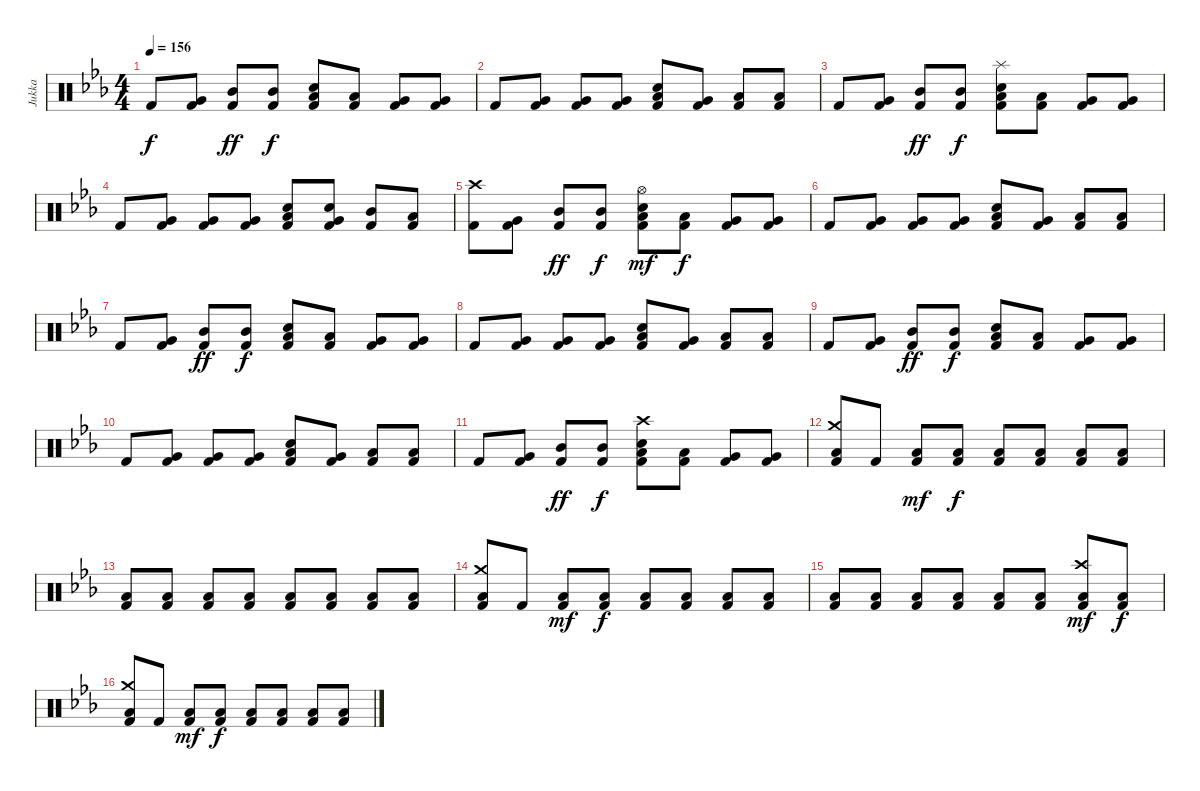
\track ("Jukka" "Jukka") {instrument percussion}
\staff {score}
\articulation defaults
\ts (4 4)
\tempo 156
\clef neutral
\ks cminor "Kick (hit) 2".8{dy f}
("Very Low Tom (hit)" "Kick (hit) 2").8 ("Mid Tom (hit)" "Kick (hit) 2").8{dy ff} ("Mid Tom (hit)" "Kick (hit) 2").8{dy f} ("Electric Snare (hit)" "Low Tom (hit)" "Kick (hit) 2").8 ("Low Tom (hit)" "Kick (hit) 2").8 ("Very Low Tom (hit)" "Kick (hit) 2").8 ("Very Low Tom (hit)" "Kick (hit) 2").8 |
"Kick (hit) 2".8 ("Very Low Tom (hit)" "Kick (hit) 2").8 ("Very Low Tom (hit)" "Kick (hit) 2").8 ("Very Low Tom (hit)" "Kick (hit) 2").8 ("Electric Snare (hit)" "Low Tom (hit)" "Kick (hit) 2").8 ("Very Low Tom (hit)" "Kick (hit) 2").8 ("Low Tom (hit)" "Kick (hit) 2").8 ("Low Tom (hit)" "Kick (hit) 2").8 |
"Kick (hit) 2".8 ("Very Low Tom (hit)" "Kick (hit) 2").8 ("Mid Tom (hit)" "Kick (hit) 2").8{dy ff} ("Mid Tom (hit)" "Kick (hit) 2").8{dy f} ("Splash (hit)" "Electric Snare (hit)" "Low Tom (hit)" "Kick (hit) 2").8 ("Low Tom (hit)" "Kick (hit) 2").8 ("Very Low Tom (hit)" "Kick (hit) 2").8 ("Very Low Tom (hit)" "Kick (hit) 2").8 |
"Kick (hit) 2".8 ("Very Low Tom (hit)" "Kick (hit) 2").8 ("Very Low Tom (hit)" "Kick (hit) 2").8 ("Very Low Tom (hit)" "Kick (hit) 2").8 ("Electric Snare (hit)" "Low Tom (hit)" "Kick (hit) 2").8 ("Electric Snare (hit)" "Very Low Tom (hit)" "Kick (hit) 2").8 ("Mid Tom (hit)" "Kick (hit) 2").8 ("Low Tom (hit)" "Kick (hit) 2").8 |
("Crash high (hit)" "Kick (hit) 2").8 ("Very Low Tom (hit)" "Kick (hit) 2").8 ("Mid Tom (hit)" "Kick (hit) 2").8{dy ff} ("Mid Tom (hit)" "Kick (hit) 2").8{dy f} ("Hi-Hat (open)" "Electric Snare (hit)" "Low Tom (hit)" "Kick (hit) 2").8{dy mf} ("Low Tom (hit)" "Kick (hit) 2").8{dy f} ("Very Low Tom (hit)" "Kick (hit) 2").8 ("Very Low Tom (hit)" "Kick (hit) 2").8 |
"Kick (hit) 2".8 ("Very Low Tom (hit)" "Kick (hit) 2").8 ("Very Low Tom (hit)" "Kick (hit) 2").8 ("Very Low Tom (hit)" "Kick (hit) 2").8 ("Electric Snare (hit)" "Low Tom (hit)" "Kick (hit) 2").8 ("Very Low Tom (hit)" "Kick (hit) 2").8 ("Low Tom (hit)" "Kick (hit) 2").8 ("Low Tom (hit)" "Kick (hit) 2").8 |
"Kick (hit) 2".8 ("Very Low Tom (hit)" "Kick (hit) 2").8 ("Mid Tom (hit)" "Kick (hit) 2").8{dy ff} ("Mid Tom (hit)" "Kick (hit) 2").8{dy f} ("Electric Snare (hit)" "Low Tom (hit)" "Kick (hit) 2").8 ("Low Tom (hit)" "Kick (hit) 2").8 ("Very Low Tom (hit)" "Kick (hit) 2").8 ("Very Low Tom (hit)" "Kick (hit) 2").8 |
"Kick (hit) 2".8 ("Very Low Tom (hit)" "Kick (hit) 2").8 ("Very Low Tom (hit)" "Kick (hit) 2").8 ("Very Low Tom (hit)" "Kick (hit) 2").8 ("Electric Snare (hit)" "Low Tom (hit)" "Kick (hit) 2").8 ("Very Low Tom (hit)" "Kick (hit) 2").8 ("Low Tom (hit)" "Kick (hit) 2").8 ("Low Tom (hit)" "Kick (hit) 2").8 |
"Kick (hit) 2".8 ("Very Low Tom (hit)" "Kick (hit) 2").8 ("Mid Tom (hit)" "Kick (hit) 2").8{dy ff} ("Mid Tom (hit)" "Kick (hit) 2").8{dy f} ("Electric Snare (hit)" "Low Tom (hit)" "Kick (hit) 2").8 ("Low Tom (hit)" "Kick (hit) 2").8 ("Very Low Tom (hit)" "Kick (hit) 2").8 ("Very Low Tom (hit)" "Kick (hit) 2").8 |
"Kick (hit) 2".8 ("Very Low Tom (hit)" "Kick (hit) 2").8 ("Very Low Tom (hit)" "Kick (hit) 2").8 ("Very Low Tom (hit)" "Kick (hit) 2").8 ("Electric Snare (hit)" "Low Tom (hit)" "Kick (hit) 2").8 ("Very Low Tom (hit)" "Kick (hit) 2").8 ("Low Tom (hit)" "Kick (hit) 2").8 ("Low Tom (hit)" "Kick (hit) 2").8 |
"Kick (hit) 2".8 ("Very Low Tom (hit)" "Kick (hit) 2").8 ("Mid Tom (hit)" "Kick (hit) 2").8{dy ff} ("Mid Tom (hit)" "Kick (hit) 2").8{dy f} ("Crash high (hit)" "Electric Snare (hit)" "Low Tom (hit)" "Kick (hit) 2").8 ("Low Tom (hit)" "Kick (hit) 2").8 ("Very Low Tom (hit)" "Kick (hit) 2").8 ("Very Low Tom (hit)" "Kick (hit) 2").8 |
("Crash medium (hit)" "Low Floor Tom (hit)" "Kick (hit) 2").8 "Kick (hit) 2".8 ("Low Floor Tom (hit)" "Kick (hit) 2").8{dy mf} ("Low Floor Tom (hit)" "Kick (hit) 2").8{dy f} ("Low Floor Tom (hit)" "Kick (hit) 2").8 ("Low Floor Tom (hit)" "Kick (hit) 2").8 ("Low Floor Tom (hit)" "Kick (hit) 2").8 ("Low Floor Tom (hit)" "Kick (hit) 2").8 |
("Low Floor Tom (hit)" "Kick (hit) 2").8 ("Low Floor Tom (hit)" "Kick (hit) 2").8 ("Low Floor Tom (hit)" "Kick (hit) 2").8 ("Low Floor Tom (hit)" "Kick (hit) 2").8 ("Low Floor Tom (hit)" "Kick (hit) 2").8 ("Low Floor Tom (hit)" "Kick (hit) 2").8 ("Low Floor Tom (hit)" "Kick (hit) 2").8 ("Low Floor Tom (hit)" "Kick (hit) 2").8 |
("Crash medium (hit)" "Low Floor Tom (hit)" "Kick (hit) 2").8 "Kick (hit) 2".8 ("Low Floor Tom (hit)" "Kick (hit) 2").8{dy mf} ("Low Floor Tom (hit)" "Kick (hit) 2").8{dy f} ("Low Floor Tom (hit)" "Kick (hit) 2").8 ("Low Floor Tom (hit)" "Kick (hit) 2").8 ("Low Floor Tom (hit)" "Kick (hit) 2").8 ("Low Floor Tom (hit)" "Kick (hit) 2").8 |
("Low Floor Tom (hit)" "Kick (hit) 2").8 ("Low Floor Tom (hit)" "Kick (hit) 2").8 ("Low Floor Tom (hit)" "Kick (hit) 2").8 ("Low Floor Tom (hit)" "Kick (hit) 2").8 ("Low Floor Tom (hit)" "Kick (hit) 2").8 ("Low Floor Tom (hit)" "Kick (hit) 2").8 ("Crash high (hit)" "Low Floor Tom (hit)" "Kick (hit) 2").8{dy mf} ("Low Floor Tom (hit)" "Kick (hit) 2").8{dy f} |
("Crash medium (hit)" "Low Floor Tom (hit)" "Kick (hit) 2").8 "Kick (hit) 2".8 ("Low Floor Tom (hit)" "Kick (hit) 2").8{dy mf} ("Low Floor Tom (hit)" "Kick (hit) 2").8{dy f} ("Low Floor Tom (hit)" "Kick (hit) 2").8 ("Low Floor Tom (hit)" "Kick (hit) 2").8 ("Low Floor Tom (hit)" "Kick (hit) 2").8 ("Low Floor Tom (hit)" "Kick (hit) 2").8
